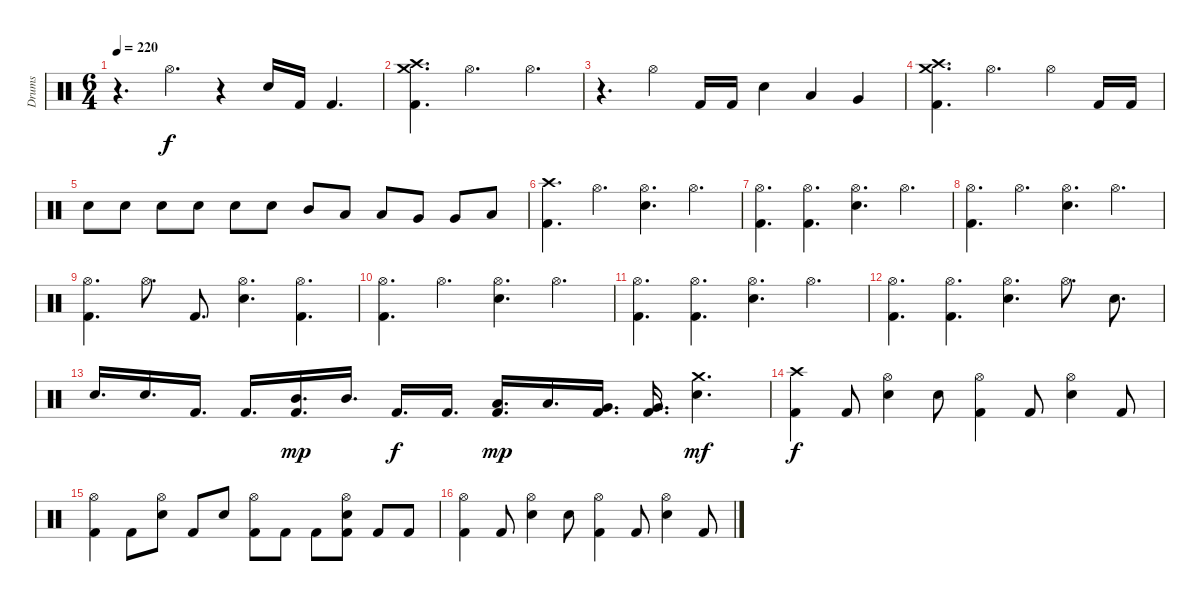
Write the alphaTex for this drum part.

\track ("Drums" "Drums") {instrument percussion}
\staff {score}
\articulation defaults
\ts (6 4)
\tempo 220
\clef neutral
\ks c
r.4{d dy f} "Hi-Hat (open)".4{d} r.4 "Electric Snare (hit)".16 "Kick (hit) 2".16 "Kick (hit) 2".4{d} |
("Crash medium (hit)" "Crash high (hit)" "Kick (hit) 2").4{d} "Hi-Hat (open)".2{d} "Hi-Hat (open)".4{d} |
r.4{d} "Hi-Hat (open)".4 "Kick (hit) 2".16 "Kick (hit) 2".16 "Electric Snare (hit)".4 "Low Tom (hit)".4 "Very Low Tom (hit)".4 |
("Crash medium (hit)" "Crash high (hit)" "Kick (hit) 2").4{d} "Hi-Hat (open)".2{d} "Hi-Hat (open)".4 "Kick (hit) 2".16 "Kick (hit) 2".16 |
"Electric Snare (hit)".8 "Electric Snare (hit)".8 "Electric Snare (hit)".8 "Electric Snare (hit)".8 "Electric Snare (hit)".8 "Electric Snare (hit)".8 "Mid Tom (hit)".8 "Low Tom (hit)".8 "Low Tom (hit)".8 "Very Low Tom (hit)".8 "Very Low Tom (hit)".8 "Low Floor Tom (hit)".8 |
("Crash high (hit)" "Kick (hit) 2").4{d} "Hi-Hat (open)".4{d} ("Hi-Hat (open)" "Electric Snare (hit)").4{d} "Hi-Hat (open)".4{d} |
("Hi-Hat (open)" "Kick (hit) 2").4{d} ("Hi-Hat (open)" "Kick (hit) 2").4{d} ("Hi-Hat (open)" "Electric Snare (hit)").4{d} "Hi-Hat (open)".4{d} |
("Hi-Hat (open)" "Kick (hit) 2").4{d} "Hi-Hat (open)".4{d} ("Hi-Hat (open)" "Electric Snare (hit)").4{d} "Hi-Hat (open)".4{d} |
("Hi-Hat (open)" "Kick (hit) 2").4{d} "Hi-Hat (open)".8{d} "Kick (hit) 2".8{d} ("Hi-Hat (open)" "Electric Snare (hit)").4{d} ("Hi-Hat (open)" "Kick (hit) 2").4{d} |
("Hi-Hat (open)" "Kick (hit) 2").4{d} "Hi-Hat (open)".4{d} ("Hi-Hat (open)" "Electric Snare (hit)").4{d} "Hi-Hat (open)".4{d} |
("Hi-Hat (open)" "Kick (hit) 2").4{d} ("Hi-Hat (open)" "Kick (hit) 2").4{d} ("Hi-Hat (open)" "Electric Snare (hit)").4{d} "Hi-Hat (open)".4{d} |
("Hi-Hat (open)" "Kick (hit) 2").4{d} ("Hi-Hat (open)" "Kick (hit) 2").4{d} ("Hi-Hat (open)" "Electric Snare (hit)").4{d} "Hi-Hat (open)".8{d} "Electric Snare (hit)".8{d} |
"Electric Snare (hit)".16{d} "Electric Snare (hit)".16{d} "Kick (hit) 2".16{d} "Kick (hit) 2".16{d} ("Mid Tom (hit)" "Kick (hit) 2").16{d dy mp} "Mid Tom (hit)".16{d} "Kick (hit) 2".16{d dy f} "Kick (hit) 2".16{d} ("Low Tom (hit)" "Kick (hit) 2").16{d dy mp} "Low Tom (hit)".16{d} ("Very Low Tom (hit)" "Kick (hit) 2").16{d} ("Very Low Tom (hit)" "Kick (hit) 2").16{d} ("Crash medium (hit)" "Electric Snare (hit)").4{d dy mf} |
("Crash high (hit)" "Kick (hit) 2").4{dy f} "Kick (hit) 2".8 ("Hi-Hat (open)" "Electric Snare (hit)").4 "Electric Snare (hit)".8 ("Hi-Hat (open)" "Kick (hit) 2").4 "Kick (hit) 2".8 ("Hi-Hat (open)" "Electric Snare (hit)").4 "Kick (hit) 2".8 |
("Hi-Hat (open)" "Kick (hit) 2").4 "Kick (hit) 2".8 ("Hi-Hat (open)" "Electric Snare (hit)").8 "Kick (hit) 2".8 "Electric Snare (hit)".8 ("Hi-Hat (open)" "Kick (hit) 2").8 "Kick (hit) 2".8 "Kick (hit) 2".8 ("Hi-Hat (open)" "Electric Snare (hit)" "Kick (hit) 2").8 "Kick (hit) 2".8 "Kick (hit) 2".8 |
("Hi-Hat (open)" "Kick (hit) 2").4 "Kick (hit) 2".8 ("Hi-Hat (open)" "Electric Snare (hit)").4 "Electric Snare (hit)".8 ("Hi-Hat (open)" "Kick (hit) 2").4 "Kick (hit) 2".8 ("Hi-Hat (open)" "Electric Snare (hit)").4 "Kick (hit) 2".8
